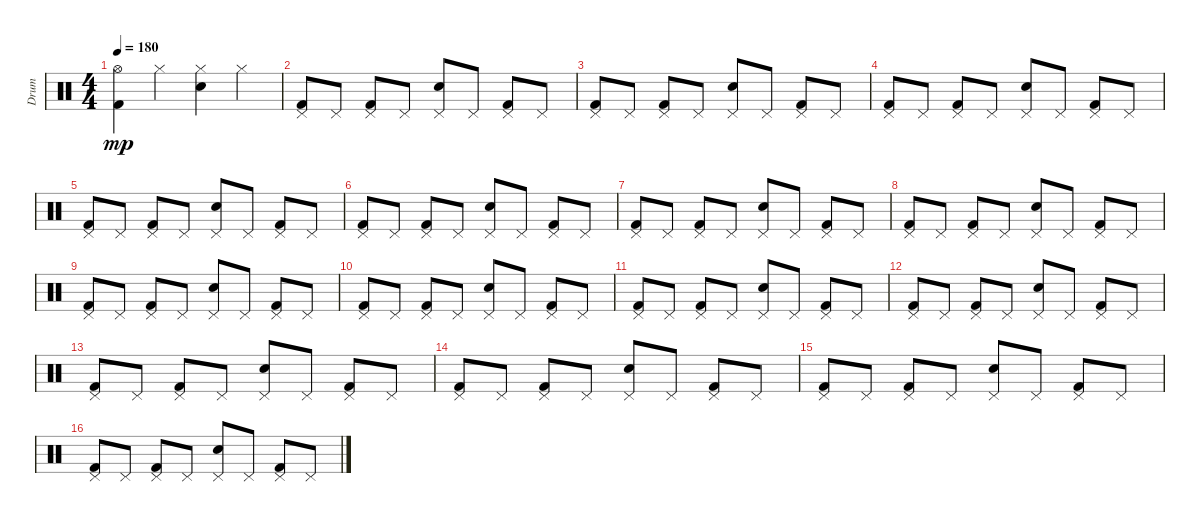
\track ("Drum" "Drum") {instrument percussion}
\staff {score}
\articulation defaults
\ts (4 4)
\tempo 180
\clef neutral
\ks c
("Hi-Hat (open)" "Kick (hit) 2").4{dy mp} "Hi-Hat (closed)".4 ("Hi-Hat (closed)" "Snare (hit) 2").4 "Hi-Hat (closed)".4 |
("Pedal Hi-Hat (hit)" "Kick (hit) 2").8 "Pedal Hi-Hat (hit)".8 ("Pedal Hi-Hat (hit)" "Kick (hit) 2").8 "Pedal Hi-Hat (hit)".8 ("Pedal Hi-Hat (hit)" "Snare (hit) 2").8 "Pedal Hi-Hat (hit)".8 ("Pedal Hi-Hat (hit)" "Kick (hit) 2").8 "Pedal Hi-Hat (hit)".8 |
("Pedal Hi-Hat (hit)" "Kick (hit) 2").8 "Pedal Hi-Hat (hit)".8 ("Pedal Hi-Hat (hit)" "Kick (hit) 2").8 "Pedal Hi-Hat (hit)".8 ("Pedal Hi-Hat (hit)" "Snare (hit) 2").8 "Pedal Hi-Hat (hit)".8 ("Pedal Hi-Hat (hit)" "Kick (hit) 2").8 "Pedal Hi-Hat (hit)".8 |
("Pedal Hi-Hat (hit)" "Kick (hit) 2").8 "Pedal Hi-Hat (hit)".8 ("Pedal Hi-Hat (hit)" "Kick (hit) 2").8 "Pedal Hi-Hat (hit)".8 ("Pedal Hi-Hat (hit)" "Snare (hit) 2").8 "Pedal Hi-Hat (hit)".8 ("Pedal Hi-Hat (hit)" "Kick (hit) 2").8 "Pedal Hi-Hat (hit)".8 |
("Pedal Hi-Hat (hit)" "Kick (hit) 2").8 "Pedal Hi-Hat (hit)".8 ("Pedal Hi-Hat (hit)" "Kick (hit) 2").8 "Pedal Hi-Hat (hit)".8 ("Pedal Hi-Hat (hit)" "Snare (hit) 2").8 "Pedal Hi-Hat (hit)".8 ("Pedal Hi-Hat (hit)" "Kick (hit) 2").8 "Pedal Hi-Hat (hit)".8 |
("Pedal Hi-Hat (hit)" "Kick (hit) 2").8 "Pedal Hi-Hat (hit)".8 ("Pedal Hi-Hat (hit)" "Kick (hit) 2").8 "Pedal Hi-Hat (hit)".8 ("Pedal Hi-Hat (hit)" "Snare (hit) 2").8 "Pedal Hi-Hat (hit)".8 ("Pedal Hi-Hat (hit)" "Kick (hit) 2").8 "Pedal Hi-Hat (hit)".8 |
("Pedal Hi-Hat (hit)" "Kick (hit) 2").8 "Pedal Hi-Hat (hit)".8 ("Pedal Hi-Hat (hit)" "Kick (hit) 2").8 "Pedal Hi-Hat (hit)".8 ("Pedal Hi-Hat (hit)" "Snare (hit) 2").8 "Pedal Hi-Hat (hit)".8 ("Pedal Hi-Hat (hit)" "Kick (hit) 2").8 "Pedal Hi-Hat (hit)".8 |
("Pedal Hi-Hat (hit)" "Kick (hit) 2").8 "Pedal Hi-Hat (hit)".8 ("Pedal Hi-Hat (hit)" "Kick (hit) 2").8 "Pedal Hi-Hat (hit)".8 ("Pedal Hi-Hat (hit)" "Snare (hit) 2").8 "Pedal Hi-Hat (hit)".8 ("Pedal Hi-Hat (hit)" "Kick (hit) 2").8 "Pedal Hi-Hat (hit)".8 |
("Pedal Hi-Hat (hit)" "Kick (hit) 2").8 "Pedal Hi-Hat (hit)".8 ("Pedal Hi-Hat (hit)" "Kick (hit) 2").8 "Pedal Hi-Hat (hit)".8 ("Pedal Hi-Hat (hit)" "Snare (hit) 2").8 "Pedal Hi-Hat (hit)".8 ("Pedal Hi-Hat (hit)" "Kick (hit) 2").8 "Pedal Hi-Hat (hit)".8 |
("Pedal Hi-Hat (hit)" "Kick (hit) 2").8 "Pedal Hi-Hat (hit)".8 ("Pedal Hi-Hat (hit)" "Kick (hit) 2").8 "Pedal Hi-Hat (hit)".8 ("Pedal Hi-Hat (hit)" "Snare (hit) 2").8 "Pedal Hi-Hat (hit)".8 ("Pedal Hi-Hat (hit)" "Kick (hit) 2").8 "Pedal Hi-Hat (hit)".8 |
("Pedal Hi-Hat (hit)" "Kick (hit) 2").8 "Pedal Hi-Hat (hit)".8 ("Pedal Hi-Hat (hit)" "Kick (hit) 2").8 "Pedal Hi-Hat (hit)".8 ("Pedal Hi-Hat (hit)" "Snare (hit) 2").8 "Pedal Hi-Hat (hit)".8 ("Pedal Hi-Hat (hit)" "Kick (hit) 2").8 "Pedal Hi-Hat (hit)".8 |
("Pedal Hi-Hat (hit)" "Kick (hit) 2").8 "Pedal Hi-Hat (hit)".8 ("Pedal Hi-Hat (hit)" "Kick (hit) 2").8 "Pedal Hi-Hat (hit)".8 ("Pedal Hi-Hat (hit)" "Snare (hit) 2").8 "Pedal Hi-Hat (hit)".8 ("Pedal Hi-Hat (hit)" "Kick (hit) 2").8 "Pedal Hi-Hat (hit)".8 |
("Pedal Hi-Hat (hit)" "Kick (hit) 2").8 "Pedal Hi-Hat (hit)".8 ("Pedal Hi-Hat (hit)" "Kick (hit) 2").8 "Pedal Hi-Hat (hit)".8 ("Pedal Hi-Hat (hit)" "Snare (hit) 2").8 "Pedal Hi-Hat (hit)".8 ("Pedal Hi-Hat (hit)" "Kick (hit) 2").8 "Pedal Hi-Hat (hit)".8 |
("Pedal Hi-Hat (hit)" "Kick (hit) 2").8 "Pedal Hi-Hat (hit)".8 ("Pedal Hi-Hat (hit)" "Kick (hit) 2").8 "Pedal Hi-Hat (hit)".8 ("Pedal Hi-Hat (hit)" "Snare (hit) 2").8 "Pedal Hi-Hat (hit)".8 ("Pedal Hi-Hat (hit)" "Kick (hit) 2").8 "Pedal Hi-Hat (hit)".8 |
("Pedal Hi-Hat (hit)" "Kick (hit) 2").8 "Pedal Hi-Hat (hit)".8 ("Pedal Hi-Hat (hit)" "Kick (hit) 2").8 "Pedal Hi-Hat (hit)".8 ("Pedal Hi-Hat (hit)" "Snare (hit) 2").8 "Pedal Hi-Hat (hit)".8 ("Pedal Hi-Hat (hit)" "Kick (hit) 2").8 "Pedal Hi-Hat (hit)".8 |
("Pedal Hi-Hat (hit)" "Kick (hit) 2").8 "Pedal Hi-Hat (hit)".8 ("Pedal Hi-Hat (hit)" "Kick (hit) 2").8 "Pedal Hi-Hat (hit)".8 ("Pedal Hi-Hat (hit)" "Snare (hit) 2").8 "Pedal Hi-Hat (hit)".8 ("Pedal Hi-Hat (hit)" "Kick (hit) 2").8 "Pedal Hi-Hat (hit)".8
